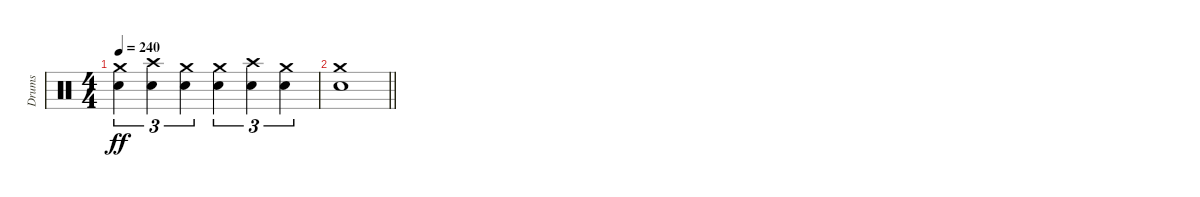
\track ("Drums" "Drums") {instrument percussion}
\staff {score}
\articulation defaults
\ts (4 4)
\tempo 240
\clef neutral
\ks c
("Crash medium (hit)" "Snare (hit) 2").4{tu (3 2) dy ff} ("Crash high (hit)" "Snare (hit) 2").4{tu (3 2)} ("Crash medium (hit)" "Snare (hit) 2").4{tu (3 2)} ("Crash medium (hit)" "Snare (hit) 2").4{tu (3 2)} ("Crash high (hit)" "Snare (hit) 2").4{tu (3 2)} ("Crash medium (hit)" "Snare (hit) 2").4{tu (3 2)} |
\barLineRight lightlight
("Crash medium (hit)" "Snare (hit) 2").1
